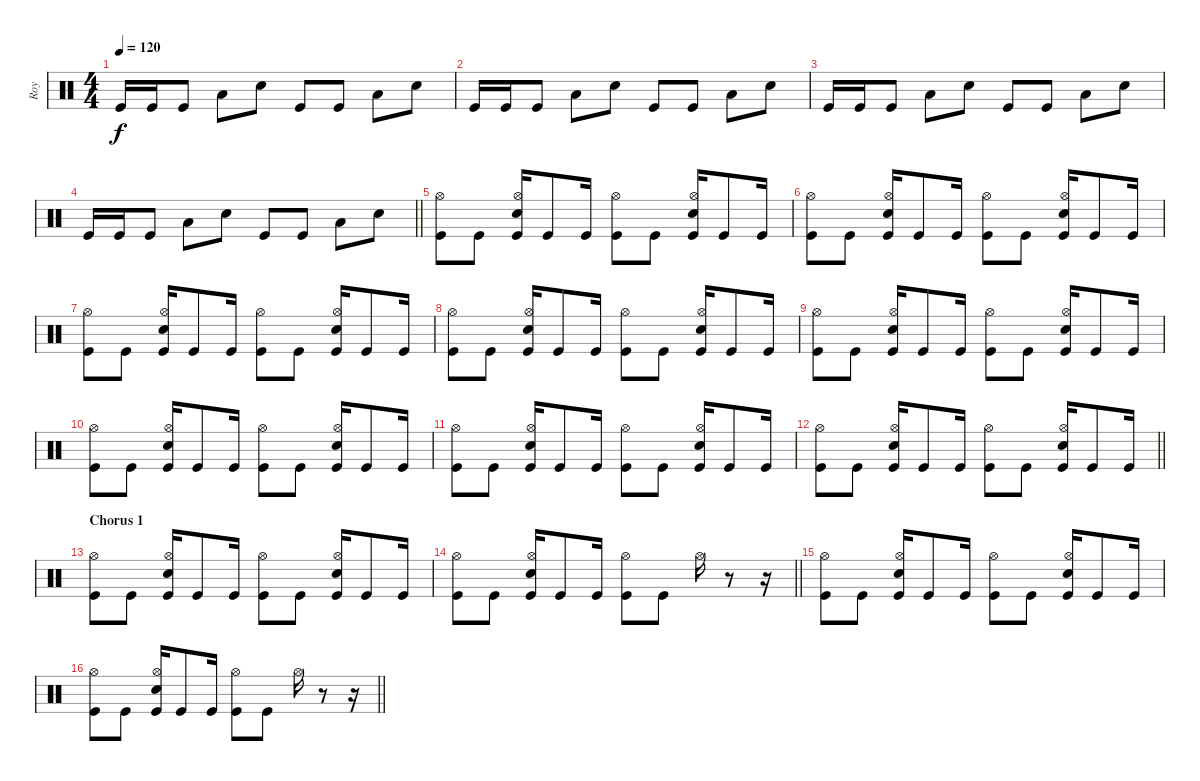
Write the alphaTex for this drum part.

\track ("Roy" "Roy") {instrument percussion}
\staff {score}
\articulation defaults
\ts (4 4)
\section ("" "")
\tempo 120
\clef neutral
\ks c "Kick (hit)".16{dy f} "Kick (hit)".16 "Kick (hit)".8 "Low Tom (hit)".8 "Metronome (bell)".8 "Kick (hit)".8 "Kick (hit)".8 "Low Tom (hit)".8 "Metronome (bell)".8
|
"Kick (hit)".16 "Kick (hit)".16 "Kick (hit)".8 "Low Tom (hit)".8 "Metronome (bell)".8 "Kick (hit)".8 "Kick (hit)".8 "Low Tom (hit)".8 "Metronome (bell)".8 |
"Kick (hit)".16 "Kick (hit)".16 "Kick (hit)".8 "Low Tom (hit)".8 "Metronome (bell)".8 "Kick (hit)".8 "Kick (hit)".8 "Low Tom (hit)".8 "Metronome (bell)".8 |
\barLineRight lightlight "Kick (hit)".16 "Kick (hit)".16 "Kick (hit)".8 "Low Tom (hit)".8 "Metronome (bell)".8 "Kick (hit)".8 "Kick (hit)".8 "Low Tom (hit)".8 "Metronome (bell)".8
|
\section ("" "")
("Hi-Hat (open)" "Kick (hit)").8 "Kick (hit)".8 ("Hi-Hat (open)" "Electric Snare (hit)" "Kick (hit)").16 "Kick (hit)".8 "Kick (hit)".16 ("Hi-Hat (open)" "Kick (hit)").8 "Kick (hit)".8 ("Hi-Hat (open)" "Electric Snare (hit)" "Kick (hit)").16 "Kick (hit)".8 "Kick (hit)".16 |
("Hi-Hat (open)" "Kick (hit)").8 "Kick (hit)".8 ("Hi-Hat (open)" "Electric Snare (hit)" "Kick (hit)").16 "Kick (hit)".8 "Kick (hit)".16 ("Hi-Hat (open)" "Kick (hit)").8 "Kick (hit)".8 ("Hi-Hat (open)" "Electric Snare (hit)" "Kick (hit)").16 "Kick (hit)".8 "Kick (hit)".16 |
("Hi-Hat (open)" "Kick (hit)").8 "Kick (hit)".8 ("Hi-Hat (open)" "Electric Snare (hit)" "Kick (hit)").16 "Kick (hit)".8 "Kick (hit)".16 ("Hi-Hat (open)" "Kick (hit)").8 "Kick (hit)".8 ("Hi-Hat (open)" "Electric Snare (hit)" "Kick (hit)").16 "Kick (hit)".8 "Kick (hit)".16 |
("Hi-Hat (open)" "Kick (hit)").8 "Kick (hit)".8 ("Hi-Hat (open)" "Electric Snare (hit)" "Kick (hit)").16 "Kick (hit)".8 "Kick (hit)".16 ("Hi-Hat (open)" "Kick (hit)").8 "Kick (hit)".8 ("Hi-Hat (open)" "Electric Snare (hit)" "Kick (hit)").16 "Kick (hit)".8 "Kick (hit)".16 |
("Hi-Hat (open)" "Kick (hit)").8 "Kick (hit)".8 ("Hi-Hat (open)" "Electric Snare (hit)" "Kick (hit)").16 "Kick (hit)".8 "Kick (hit)".16 ("Hi-Hat (open)" "Kick (hit)").8 "Kick (hit)".8 ("Hi-Hat (open)" "Electric Snare (hit)" "Kick (hit)").16 "Kick (hit)".8 "Kick (hit)".16 |
("Hi-Hat (open)" "Kick (hit)").8 "Kick (hit)".8 ("Hi-Hat (open)" "Electric Snare (hit)" "Kick (hit)").16 "Kick (hit)".8 "Kick (hit)".16 ("Hi-Hat (open)" "Kick (hit)").8 "Kick (hit)".8 ("Hi-Hat (open)" "Electric Snare (hit)" "Kick (hit)").16 "Kick (hit)".8 "Kick (hit)".16 |
("Hi-Hat (open)" "Kick (hit)").8 "Kick (hit)".8 ("Hi-Hat (open)" "Electric Snare (hit)" "Kick (hit)").16 "Kick (hit)".8 "Kick (hit)".16 ("Hi-Hat (open)" "Kick (hit)").8 "Kick (hit)".8 ("Hi-Hat (open)" "Electric Snare (hit)" "Kick (hit)").16 "Kick (hit)".8 "Kick (hit)".16 |
\barLineRight lightlight
("Hi-Hat (open)" "Kick (hit)").8 "Kick (hit)".8 ("Hi-Hat (open)" "Electric Snare (hit)" "Kick (hit)").16 "Kick (hit)".8 "Kick (hit)".16 ("Hi-Hat (open)" "Kick (hit)").8 "Kick (hit)".8 ("Hi-Hat (open)" "Electric Snare (hit)" "Kick (hit)").16 "Kick (hit)".8 "Kick (hit)".16 |
\section ("" "Chorus 1")
("Hi-Hat (open)" "Kick (hit)").8 "Kick (hit)".8 ("Hi-Hat (open)" "Electric Snare (hit)" "Kick (hit)").16 "Kick (hit)".8 "Kick (hit)".16 ("Hi-Hat (open)" "Kick (hit)").8 "Kick (hit)".8 ("Hi-Hat (open)" "Electric Snare (hit)" "Kick (hit)").16 "Kick (hit)".8 "Kick (hit)".16 |
\barLineRight lightlight
("Hi-Hat (open)" "Kick (hit)").8 "Kick (hit)".8 ("Hi-Hat (open)" "Electric Snare (hit)" "Kick (hit)").16 "Kick (hit)".8 "Kick (hit)".16 ("Hi-Hat (open)" "Kick (hit)").8 "Kick (hit)".8 "Hi-Hat (open)".16 r.8 r.16 |
("Hi-Hat (open)" "Kick (hit)").8 "Kick (hit)".8 ("Hi-Hat (open)" "Electric Snare (hit)" "Kick (hit)").16 "Kick (hit)".8 "Kick (hit)".16 ("Hi-Hat (open)" "Kick (hit)").8 "Kick (hit)".8 ("Hi-Hat (open)" "Electric Snare (hit)" "Kick (hit)").16 "Kick (hit)".8 "Kick (hit)".16 |
\barLineRight lightlight
("Hi-Hat (open)" "Kick (hit)").8 "Kick (hit)".8 ("Hi-Hat (open)" "Electric Snare (hit)" "Kick (hit)").16 "Kick (hit)".8 "Kick (hit)".16 ("Hi-Hat (open)" "Kick (hit)").8 "Kick (hit)".8 "Hi-Hat (open)".16 r.8 r.16
